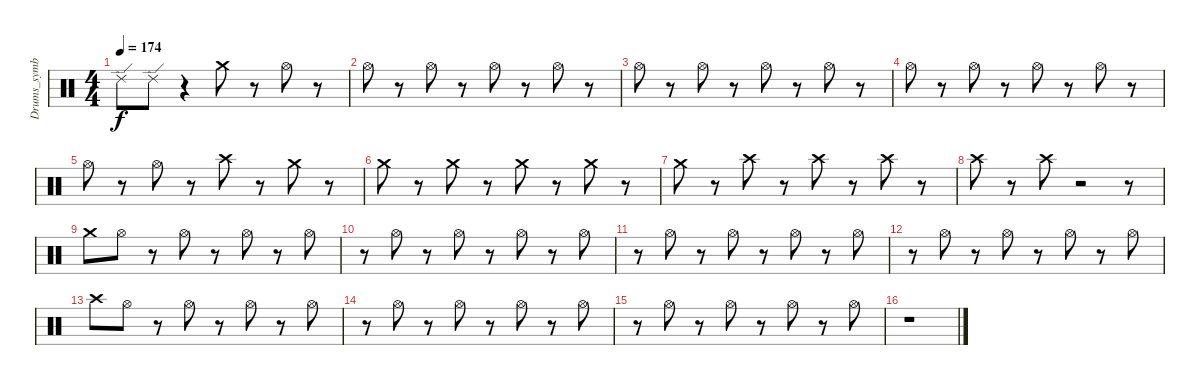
\track ("Drums_symbal" "Drums_symb") {instrument percussion}
\staff {score}
\articulation defaults
\ts (4 4)
\tempo 174
\clef neutral
\ks c "Ride (edge) 2".8{dy f} "Ride (edge) 2".8
r.4 "Crash medium (hit)".8 r.8 "Hi-Hat (open)".8 r.8 |
"Hi-Hat (open)".8 r.8 "Hi-Hat (open)".8 r.8 "Hi-Hat (open)".8 r.8 "Hi-Hat (open)".8 r.8 |
"Hi-Hat (open)".8 r.8 "Hi-Hat (open)".8 r.8 "Hi-Hat (open)".8 r.8 "Hi-Hat (open)".8 r.8 |
"Hi-Hat (open)".8 r.8 "Hi-Hat (open)".8 r.8 "Hi-Hat (open)".8 r.8 "Hi-Hat (open)".8 r.8 |
"Hi-Hat (open)".8 r.8 "Hi-Hat (open)".8 r.8 "Crash high (hit)".8 r.8 "Crash medium (hit)".8 r.8 |
"Crash medium (hit)".8 r.8 "Crash medium (hit)".8 r.8 "Crash medium (hit)".8 r.8 "Crash medium (hit)".8 r.8 |
"Crash medium (hit)".8 r.8 "Crash high (hit)".8 r.8 "Crash high (hit)".8 r.8 "Crash high (hit)".8 r.8 |
"Crash high (hit)".8 r.8 "Crash high (hit)".8 r.2 r.8 |
"Crash medium (hit)".8 "Hi-Hat (open)".8 r.8 "Hi-Hat (open)".8 r.8 "Hi-Hat (open)".8 r.8 "Hi-Hat (open)".8 |
r.8 "Hi-Hat (open)".8 r.8 "Hi-Hat (open)".8 r.8 "Hi-Hat (open)".8 r.8 "Hi-Hat (open)".8 |
r.8 "Hi-Hat (open)".8 r.8 "Hi-Hat (open)".8 r.8 "Hi-Hat (open)".8 r.8 "Hi-Hat (open)".8 |
r.8 "Hi-Hat (open)".8 r.8 "Hi-Hat (open)".8 r.8 "Hi-Hat (open)".8 r.8 "Hi-Hat (open)".8 |
"Crash high (hit)".8 "Hi-Hat (open)".8 r.8 "Hi-Hat (open)".8 r.8 "Hi-Hat (open)".8 r.8 "Hi-Hat (open)".8 |
r.8 "Hi-Hat (open)".8 r.8 "Hi-Hat (open)".8 r.8 "Hi-Hat (open)".8 r.8 "Hi-Hat (open)".8 |
r.8 "Hi-Hat (open)".8 r.8 "Hi-Hat (open)".8 r.8 "Hi-Hat (open)".8 r.8 "Hi-Hat (open)".8 |
r.1
